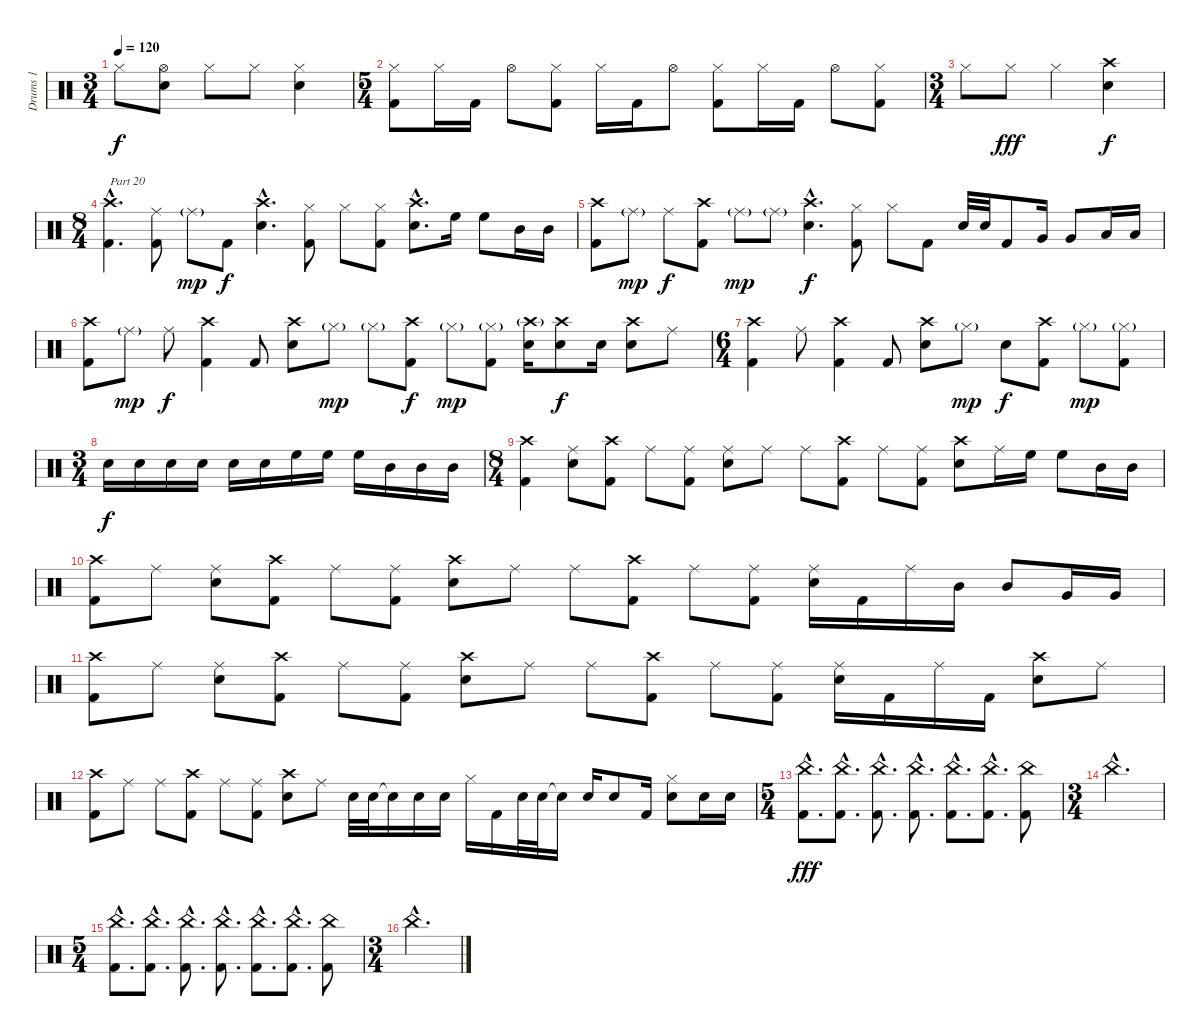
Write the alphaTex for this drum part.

\track ("Drums 1" "Drums 1") {instrument percussion}
\staff {score}
\articulation defaults
\ts (3 4)
\tempo 120
\clef neutral
\ks c "Hi-Hat (closed)".8{dy f}
("Snare (hit) 2" "Hi-Hat (open)").8 "Hi-Hat (closed)".8 "Hi-Hat (closed)".8 ("Snare (hit) 2" "Hi-Hat (closed)").4 |
\ts (5 4)
("Hi-Hat (closed)" "Kick (hit) 2").8 "Hi-Hat (closed)".16 "Kick (hit) 2".16 "Hi-Hat (open)".8 ("Hi-Hat (closed)" "Kick (hit) 2").8 "Hi-Hat (closed)".16 "Kick (hit) 2".16 "Hi-Hat (open)".8 ("Hi-Hat (closed)" "Kick (hit) 2").8 "Hi-Hat (closed)".16 "Kick (hit) 2".16 "Hi-Hat (open)".8 ("Hi-Hat (closed)" "Kick (hit) 2").8 |
\ts (3 4)
"Hi-Hat (closed)".8 "Hi-Hat (closed)".8{dy fff} "Hi-Hat (closed)".4 ("Crash high (hit)" "Snare (hit) 2").4{dy f} |
\ts (8 4)
("Crash high (hit)"{hac} "Kick (hit) 2"{hac}).4{d txt "Part 20"} ("Ride (middle)" "Kick (hit) 2").8 "Ride (middle)"{g}.8{dy mp} "Kick (hit) 2".8{dy f} ("Crash high (hit)"{hac} "Snare (hit) 2"{hac}).4{d} ("Hi-Hat (closed)" "Kick (hit) 2").8 "Hi-Hat (closed)".8 ("Hi-Hat (closed)" "Kick (hit) 2").8 ("Crash high (hit)"{hac} "Snare (hit) 2"{hac}).8{d} "High Floor Tom (hit)".16 "High Floor Tom (hit)".8 "Mid Tom (hit)".16 "Mid Tom (hit)".16 |
("Crash high (hit)" "Kick (hit) 2").8 "Ride (middle)"{g}.8{dy mp} "Ride (middle)".8{dy f} ("Crash high (hit)" "Kick (hit) 2").8 "Ride (middle)"{g}.8{dy mp} "Ride (middle)"{g}.8 ("Crash high (hit)"{hac} "Snare (hit) 2"{hac}).4{d dy f} ("Hi-Hat (closed)" "Kick (hit) 2").8 "Hi-Hat (closed)".8 "Kick (hit) 2".8 "Snare (hit) 2".32 "Snare (hit) 2".32 "Kick (hit) 2".8 "Very Low Tom (hit)".16 "Very Low Tom (hit)".8 "Low Floor Tom (hit)".16 "Low Floor Tom (hit)".16 |
("Crash high (hit)" "Kick (hit) 2").8 "Ride (middle)"{g}.8{dy mp} "Ride (middle)".8{dy f} ("Crash high (hit)" "Kick (hit) 2").4 "Kick (hit) 2".8 ("Crash high (hit)" "Snare (hit) 2").8 "Hi-Hat (closed)"{g}.8{dy mp} "Hi-Hat (closed)"{g}.8 ("Crash high (hit)" "Kick (hit) 2").8{dy f} "Hi-Hat (closed)"{g}.8{dy mp} ("Hi-Hat (closed)"{g} "Kick (hit) 2").8 ("Crash high (hit)"{g} "Snare (hit) 2").16 ("Crash high (hit)" "Snare (hit) 2").8{dy f} "Snare (hit) 2".16 ("Crash high (hit)" "Snare (hit) 2").8 "Ride (middle)".8 |
\ts (6 4)
("Crash high (hit)" "Kick (hit) 2").4 "Ride (middle)".8 ("Crash high (hit)" "Kick (hit) 2").4 "Kick (hit) 2".8 ("Crash high (hit)" "Snare (hit) 2").8 "Hi-Hat (closed)"{g}.8{dy mp} "Snare (hit) 2".8{dy f} ("Kick (hit) 2" "Crash high (hit)").8 "Hi-Hat (closed)"{g}.8{dy mp} ("Hi-Hat (closed)"{g} "Kick (hit) 2").8 |
\ts (3 4)
"Snare (hit) 2".16{dy f} "Snare (hit) 2".16 "Snare (hit) 2".16 "Snare (hit) 2".16 "Snare (hit) 2".16 "Snare (hit) 2".16 "High Floor Tom (hit)".16 "High Floor Tom (hit)".16 "High Floor Tom (hit)".16 "Mid Tom (hit)".16 "Mid Tom (hit)".16 "Mid Tom (hit)".16 |
\ts (8 4)
("Crash high (hit)" "Kick (hit) 2").4 ("Ride (middle)" "Snare (hit) 2").8 ("Crash high (hit)" "Kick (hit) 2").8 "Ride (middle)".8 ("Ride (middle)" "Kick (hit) 2").8 ("Ride (middle)" "Snare (hit) 2").8 "Ride (middle)".8 "Ride (middle)".8 ("Crash high (hit)" "Kick (hit) 2").8 "Ride (middle)".8 ("Ride (middle)" "Kick (hit) 2").8 ("Crash high (hit)" "Snare (hit) 2").8 "Ride (middle)".16 "High Floor Tom (hit)".16 "High Floor Tom (hit)".8 "Mid Tom (hit)".16 "Mid Tom (hit)".16 |
("Crash high (hit)" "Kick (hit) 2").8 "Ride (middle)".8 ("Ride (middle)" "Snare (hit) 2").8 ("Crash high (hit)" "Kick (hit) 2").8 "Ride (middle)".8 ("Ride (middle)" "Kick (hit) 2").8 ("Crash high (hit)" "Snare (hit) 2").8 "Ride (middle)".8 "Ride (middle)".8 ("Crash high (hit)" "Kick (hit) 2").8 "Ride (middle)".8 ("Ride (middle)" "Kick (hit) 2").8 ("Ride (middle)" "Snare (hit) 2").16 "Kick (hit) 2".16 "Ride (middle)".16 "Mid Tom (hit)".16 "Mid Tom (hit)".8 "Very Low Tom (hit)".16 "Very Low Tom (hit)".16 |
("Crash high (hit)" "Kick (hit) 2").8 "Ride (middle)".8 ("Ride (middle)" "Snare (hit) 2").8 ("Crash high (hit)" "Kick (hit) 2").8 "Ride (middle)".8 ("Ride (middle)" "Kick (hit) 2").8 ("Crash high (hit)" "Snare (hit) 2").8 "Ride (middle)".8 "Ride (middle)".8 ("Crash high (hit)" "Kick (hit) 2").8 "Ride (middle)".8 ("Ride (middle)" "Kick (hit) 2").8 ("Ride (middle)" "Snare (hit) 2").16 "Kick (hit) 2".16 "Ride (middle)".16 "Kick (hit) 2".16 ("Crash high (hit)" "Snare (hit) 2").8 "Ride (middle)".8 |
("Crash high (hit)" "Kick (hit) 2").8 "Ride (middle)".8 "Ride (middle)".8 ("Crash high (hit)" "Kick (hit) 2").8 "Ride (middle)".8 ("Ride (middle)" "Kick (hit) 2").8 ("Crash high (hit)" "Snare (hit) 2").8 "Ride (middle)".8 "Snare (hit) 2".32 "Snare (hit) 2".32 "Snare (hit)"{t}.16 "Snare (hit) 2".16 "Snare (hit) 2".16 "Hi-Hat (closed)".16 "Kick (hit) 2".16 "Snare (hit) 2".32 "Snare (hit) 2".32 "Snare (hit)"{t}.16 "Snare (hit) 2".16 "Snare (hit) 2".8 "Kick (hit) 2".16 ("Hi-Hat (closed)" "Snare (hit) 2").8 "Snare (hit) 2".16 "Snare (hit) 2".16 |
\ts (5 4)
("China (hit)"{hac} "Kick (hit) 2"{hac}).8{d dy fff} ("China (hit)"{hac} "Kick (hit) 2"{hac}).8{d} ("China (hit)"{hac} "Kick (hit) 2"{hac}).8{d} ("China (hit)"{hac} "Kick (hit) 2"{hac}).8{d} ("China (hit)"{hac} "Kick (hit) 2"{hac}).8{d} ("China (hit)"{hac} "Kick (hit) 2"{hac}).8{d} ("China (hit)" "Kick (hit) 2").8 |
\ts (3 4)
"China (hit)"{hac}.2{d} |
\ts (5 4)
("China (hit)"{hac} "Kick (hit) 2"{hac}).8{d} ("China (hit)"{hac} "Kick (hit) 2"{hac}).8{d} ("China (hit)"{hac} "Kick (hit) 2"{hac}).8{d} ("China (hit)"{hac} "Kick (hit) 2"{hac}).8{d} ("China (hit)"{hac} "Kick (hit) 2"{hac}).8{d} ("China (hit)"{hac} "Kick (hit) 2"{hac}).8{d} ("China (hit)" "Kick (hit) 2").8 |
\ts (3 4)
"China (hit)"{hac}.2{d}
